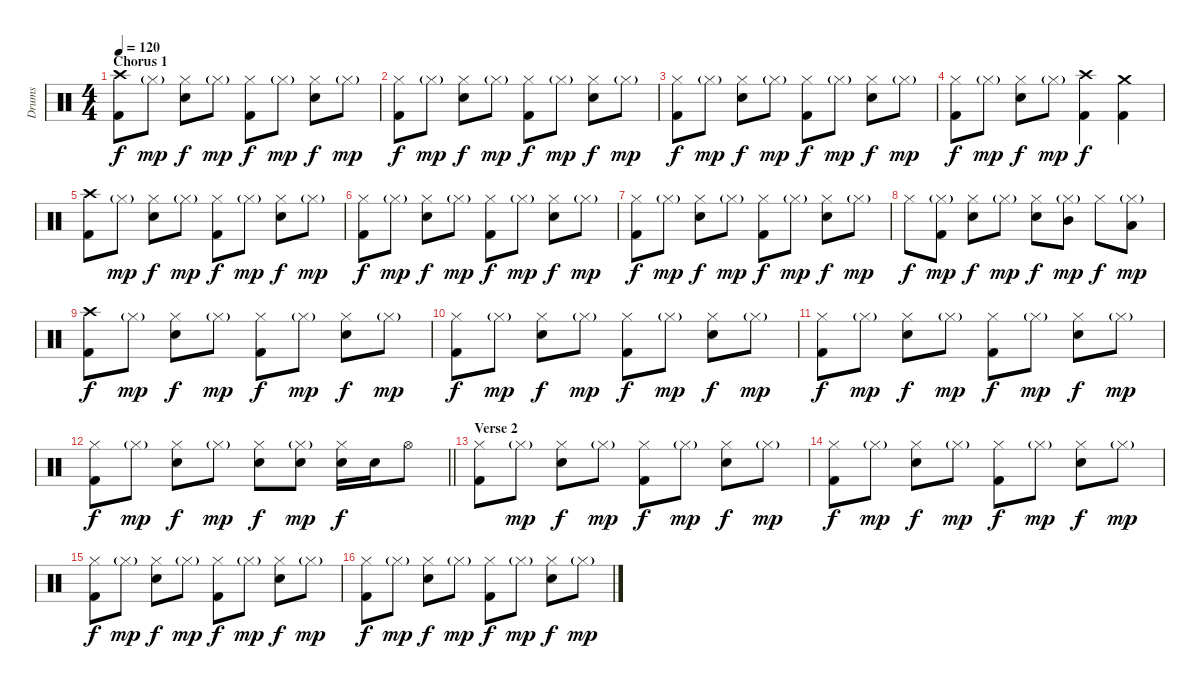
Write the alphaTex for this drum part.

\track ("Drums" "Drums") {instrument percussion}
\staff {score}
\articulation defaults
\ts (4 4)
\section ("" "Chorus 1")
\tempo 120
\clef neutral
\ks c
("Crash high (hit)" "Kick (hit) 2").8{dy f} "Hi-Hat (closed)"{g}.8{dy mp} ("Hi-Hat (closed)" "Electric Snare (hit)").8{dy f} "Hi-Hat (closed)"{g}.8{dy mp} ("Hi-Hat (closed)" "Kick (hit) 2").8{dy f} "Hi-Hat (closed)"{g}.8{dy mp} ("Hi-Hat (closed)" "Electric Snare (hit)").8{dy f} "Hi-Hat (closed)"{g}.8{dy mp} |
("Hi-Hat (closed)" "Kick (hit) 2").8{dy f} "Hi-Hat (closed)"{g}.8{dy mp} ("Hi-Hat (closed)" "Electric Snare (hit)").8{dy f} "Hi-Hat (closed)"{g}.8{dy mp} ("Hi-Hat (closed)" "Kick (hit) 2").8{dy f} "Hi-Hat (closed)"{g}.8{dy mp} ("Hi-Hat (closed)" "Electric Snare (hit)").8{dy f} "Hi-Hat (closed)"{g}.8{dy mp} |
("Hi-Hat (closed)" "Kick (hit) 2").8{dy f} "Hi-Hat (closed)"{g}.8{dy mp} ("Hi-Hat (closed)" "Electric Snare (hit)").8{dy f} "Hi-Hat (closed)"{g}.8{dy mp} ("Hi-Hat (closed)" "Kick (hit) 2").8{dy f} "Hi-Hat (closed)"{g}.8{dy mp} ("Hi-Hat (closed)" "Electric Snare (hit)").8{dy f} "Hi-Hat (closed)"{g}.8{dy mp} |
("Hi-Hat (closed)" "Kick (hit) 2").8{dy f} "Hi-Hat (closed)"{g}.8{dy mp} ("Hi-Hat (closed)" "Electric Snare (hit)").8{dy f} "Hi-Hat (closed)"{g}.8{dy mp} ("Crash high (hit)" "Kick (hit) 2").4{dy f} ("Crash medium (hit)" "Kick (hit) 2").4 |
("Crash high (hit)" "Kick (hit) 2").8 "Hi-Hat (closed)"{g}.8{dy mp} ("Hi-Hat (closed)" "Electric Snare (hit)").8{dy f} "Hi-Hat (closed)"{g}.8{dy mp} ("Hi-Hat (closed)" "Kick (hit) 2").8{dy f} "Hi-Hat (closed)"{g}.8{dy mp} ("Hi-Hat (closed)" "Electric Snare (hit)").8{dy f} "Hi-Hat (closed)"{g}.8{dy mp} |
("Hi-Hat (closed)" "Kick (hit) 2").8{dy f} "Hi-Hat (closed)"{g}.8{dy mp} ("Hi-Hat (closed)" "Electric Snare (hit)").8{dy f} "Hi-Hat (closed)"{g}.8{dy mp} ("Hi-Hat (closed)" "Kick (hit) 2").8{dy f} "Hi-Hat (closed)"{g}.8{dy mp} ("Hi-Hat (closed)" "Electric Snare (hit)").8{dy f} "Hi-Hat (closed)"{g}.8{dy mp} |
("Hi-Hat (closed)" "Kick (hit) 2").8{dy f} "Hi-Hat (closed)"{g}.8{dy mp} ("Hi-Hat (closed)" "Electric Snare (hit)").8{dy f} "Hi-Hat (closed)"{g}.8{dy mp} ("Hi-Hat (closed)" "Kick (hit) 2").8{dy f} "Hi-Hat (closed)"{g}.8{dy mp} ("Hi-Hat (closed)" "Electric Snare (hit)").8{dy f} "Hi-Hat (closed)"{g}.8{dy mp} |
"Hi-Hat (closed)".8{dy f} ("Hi-Hat (closed)"{g} "Kick (hit) 2").8{dy mp} ("Hi-Hat (closed)" "Electric Snare (hit)").8{dy f} "Hi-Hat (closed)"{g}.8{dy mp} ("Hi-Hat (closed)" "Electric Snare (hit)").8{dy f} ("Mid Tom (hit)" "Hi-Hat (closed)"{g}).8{dy mp} "Hi-Hat (closed)".8{dy f} ("Low Tom (hit)" "Hi-Hat (closed)"{g}).8{dy mp} |
("Crash high (hit)" "Kick (hit) 2").8{dy f} "Hi-Hat (closed)"{g}.8{dy mp} ("Hi-Hat (closed)" "Electric Snare (hit)").8{dy f} "Hi-Hat (closed)"{g}.8{dy mp} ("Hi-Hat (closed)" "Kick (hit) 2").8{dy f} "Hi-Hat (closed)"{g}.8{dy mp} ("Hi-Hat (closed)" "Electric Snare (hit)").8{dy f} "Hi-Hat (closed)"{g}.8{dy mp} |
("Hi-Hat (closed)" "Kick (hit) 2").8{dy f} "Hi-Hat (closed)"{g}.8{dy mp} ("Hi-Hat (closed)" "Electric Snare (hit)").8{dy f} "Hi-Hat (closed)"{g}.8{dy mp} ("Hi-Hat (closed)" "Kick (hit) 2").8{dy f} "Hi-Hat (closed)"{g}.8{dy mp} ("Hi-Hat (closed)" "Electric Snare (hit)").8{dy f} "Hi-Hat (closed)"{g}.8{dy mp} |
("Hi-Hat (closed)" "Kick (hit) 2").8{dy f} "Hi-Hat (closed)"{g}.8{dy mp} ("Hi-Hat (closed)" "Electric Snare (hit)").8{dy f} "Hi-Hat (closed)"{g}.8{dy mp} ("Hi-Hat (closed)" "Kick (hit) 2").8{dy f} "Hi-Hat (closed)"{g}.8{dy mp} ("Hi-Hat (closed)" "Electric Snare (hit)").8{dy f} "Hi-Hat (closed)"{g}.8{dy mp} |
\barLineRight lightlight
("Hi-Hat (closed)" "Kick (hit) 2").8{dy f} "Hi-Hat (closed)"{g}.8{dy mp} ("Hi-Hat (closed)" "Electric Snare (hit)").8{dy f} "Hi-Hat (closed)"{g}.8{dy mp} ("Hi-Hat (closed)" "Electric Snare (hit)").8{dy f} ("Hi-Hat (closed)"{g} "Electric Snare (hit)").8{dy mp} ("Hi-Hat (closed)" "Electric Snare (hit)").16{dy f} "Electric Snare (hit)".16 "Hi-Hat (open)".8 |
\section ("" "Verse 2")
("Hi-Hat (closed)" "Kick (hit) 2").8 "Hi-Hat (closed)"{g}.8{dy mp} ("Hi-Hat (closed)" "Electric Snare (hit)").8{dy f} "Hi-Hat (closed)"{g}.8{dy mp} ("Hi-Hat (closed)" "Kick (hit) 2").8{dy f} "Hi-Hat (closed)"{g}.8{dy mp} ("Hi-Hat (closed)" "Electric Snare (hit)").8{dy f} "Hi-Hat (closed)"{g}.8{dy mp} |
("Hi-Hat (closed)" "Kick (hit) 2").8{dy f} "Hi-Hat (closed)"{g}.8{dy mp} ("Hi-Hat (closed)" "Electric Snare (hit)").8{dy f} "Hi-Hat (closed)"{g}.8{dy mp} ("Hi-Hat (closed)" "Kick (hit) 2").8{dy f} "Hi-Hat (closed)"{g}.8{dy mp} ("Hi-Hat (closed)" "Electric Snare (hit)").8{dy f} "Hi-Hat (closed)"{g}.8{dy mp} |
("Hi-Hat (closed)" "Kick (hit) 2").8{dy f} "Hi-Hat (closed)"{g}.8{dy mp} ("Hi-Hat (closed)" "Electric Snare (hit)").8{dy f} "Hi-Hat (closed)"{g}.8{dy mp} ("Hi-Hat (closed)" "Kick (hit) 2").8{dy f} "Hi-Hat (closed)"{g}.8{dy mp} ("Hi-Hat (closed)" "Electric Snare (hit)").8{dy f} "Hi-Hat (closed)"{g}.8{dy mp} |
("Hi-Hat (closed)" "Kick (hit) 2").8{dy f} "Hi-Hat (closed)"{g}.8{dy mp} ("Hi-Hat (closed)" "Electric Snare (hit)").8{dy f} "Hi-Hat (closed)"{g}.8{dy mp} ("Hi-Hat (closed)" "Kick (hit) 2").8{dy f} "Hi-Hat (closed)"{g}.8{dy mp} ("Hi-Hat (closed)" "Electric Snare (hit)").8{dy f} "Hi-Hat (closed)"{g}.8{dy mp}
